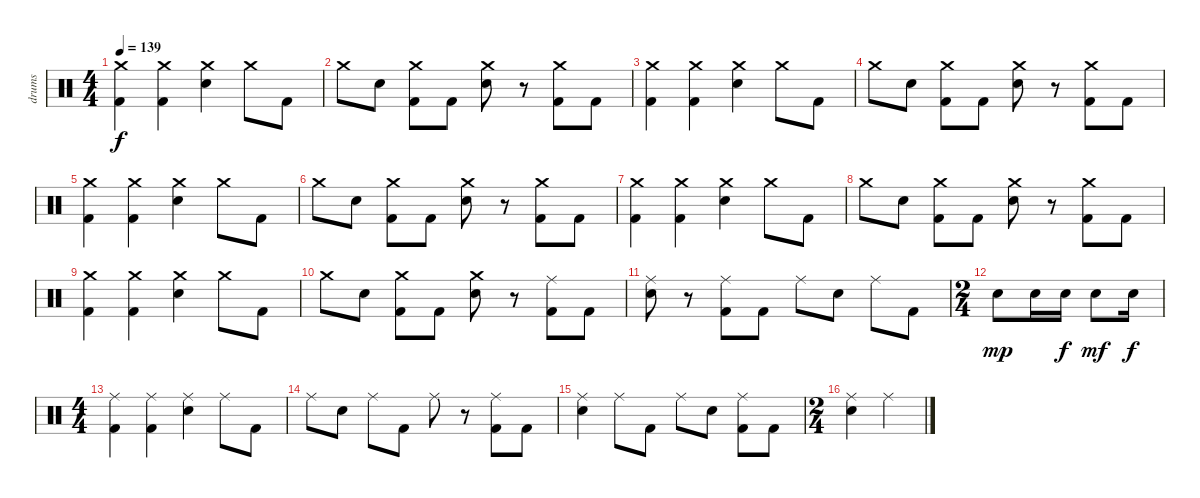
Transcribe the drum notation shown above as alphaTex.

\track ("drums" "drums") {instrument percussion}
\staff {score}
\articulation defaults
\ts (4 4)
\tempo 139
\clef neutral
\ks c
("Crash medium (hit)" "Kick (hit) 2").4{dy f} ("Crash medium (hit)" "Kick (hit) 2").4 ("Crash medium (hit)" "Electric Snare (hit)").4 "Crash medium (hit)".8 "Kick (hit) 2".8 |
"Crash medium (hit)".8 "Electric Snare (hit)".8 ("Crash medium (hit)" "Kick (hit) 2").8 "Kick (hit) 2".8 ("Crash medium (hit)" "Electric Snare (hit)").8 r.8 ("Crash medium (hit)" "Kick (hit) 2").8 "Kick (hit) 2".8 |
("Crash medium (hit)" "Kick (hit) 2").4 ("Crash medium (hit)" "Kick (hit) 2").4 ("Crash medium (hit)" "Electric Snare (hit)").4 "Crash medium (hit)".8 "Kick (hit) 2".8 |
"Crash medium (hit)".8 "Electric Snare (hit)".8 ("Crash medium (hit)" "Kick (hit) 2").8 "Kick (hit) 2".8 ("Crash medium (hit)" "Electric Snare (hit)").8 r.8 ("Crash medium (hit)" "Kick (hit) 2").8 "Kick (hit) 2".8 |
("Crash medium (hit)" "Kick (hit) 2").4 ("Crash medium (hit)" "Kick (hit) 2").4 ("Crash medium (hit)" "Electric Snare (hit)").4 "Crash medium (hit)".8 "Kick (hit) 2".8 |
"Crash medium (hit)".8 "Electric Snare (hit)".8 ("Crash medium (hit)" "Kick (hit) 2").8 "Kick (hit) 2".8 ("Crash medium (hit)" "Electric Snare (hit)").8 r.8 ("Crash medium (hit)" "Kick (hit) 2").8 "Kick (hit) 2".8 |
("Crash medium (hit)" "Kick (hit) 2").4 ("Crash medium (hit)" "Kick (hit) 2").4 ("Crash medium (hit)" "Electric Snare (hit)").4 "Crash medium (hit)".8 "Kick (hit) 2".8 |
"Crash medium (hit)".8 "Electric Snare (hit)".8 ("Crash medium (hit)" "Kick (hit) 2").8 "Kick (hit) 2".8 ("Crash medium (hit)" "Electric Snare (hit)").8 r.8 ("Crash medium (hit)" "Kick (hit) 2").8 "Kick (hit) 2".8 |
("Crash medium (hit)" "Kick (hit) 2").4 ("Crash medium (hit)" "Kick (hit) 2").4 ("Crash medium (hit)" "Electric Snare (hit)").4 "Crash medium (hit)".8 "Kick (hit) 2".8 |
"Crash medium (hit)".8 "Electric Snare (hit)".8 ("Crash medium (hit)" "Kick (hit) 2").8 "Kick (hit) 2".8 ("Crash medium (hit)" "Electric Snare (hit)").8 r.8 ("Ride (middle)" "Kick (hit) 2").8 "Kick (hit) 2".8 |
("Ride (middle)" "Electric Snare (hit)").8 r.8 ("Ride (middle)" "Kick (hit) 2").8 "Kick (hit) 2".8 "Ride (middle)".8 "Electric Snare (hit)".8 "Ride (middle)".8 "Kick (hit) 2".8 |
\ts (2 4)
"Electric Snare (hit)".8{dy mp} "Electric Snare (hit)".16 "Electric Snare (hit)".16{dy f} "Electric Snare (hit)".8{dy mf} "Electric Snare (hit)".16{dy f} |
\ts (4 4)
("Ride (middle)" "Kick (hit) 2").4 ("Ride (middle)" "Kick (hit) 2").4 ("Ride (middle)" "Electric Snare (hit)").4 "Ride (middle)".8 "Kick (hit) 2".8 |
"Ride (middle)".8 "Electric Snare (hit)".8 "Ride (middle)".8 "Kick (hit) 2".8 "Ride (middle)".8 r.8 ("Ride (middle)" "Kick (hit) 2").8 "Kick (hit) 2".8 |
("Ride (middle)" "Electric Snare (hit)").4 "Ride (middle)".8 "Kick (hit) 2".8 "Ride (middle)".8 "Electric Snare (hit)".8 ("Ride (middle)" "Kick (hit) 2").8 "Kick (hit) 2".8 |
\ts (2 4)
("Ride (middle)" "Electric Snare (hit)").4 "Ride (middle)".4
